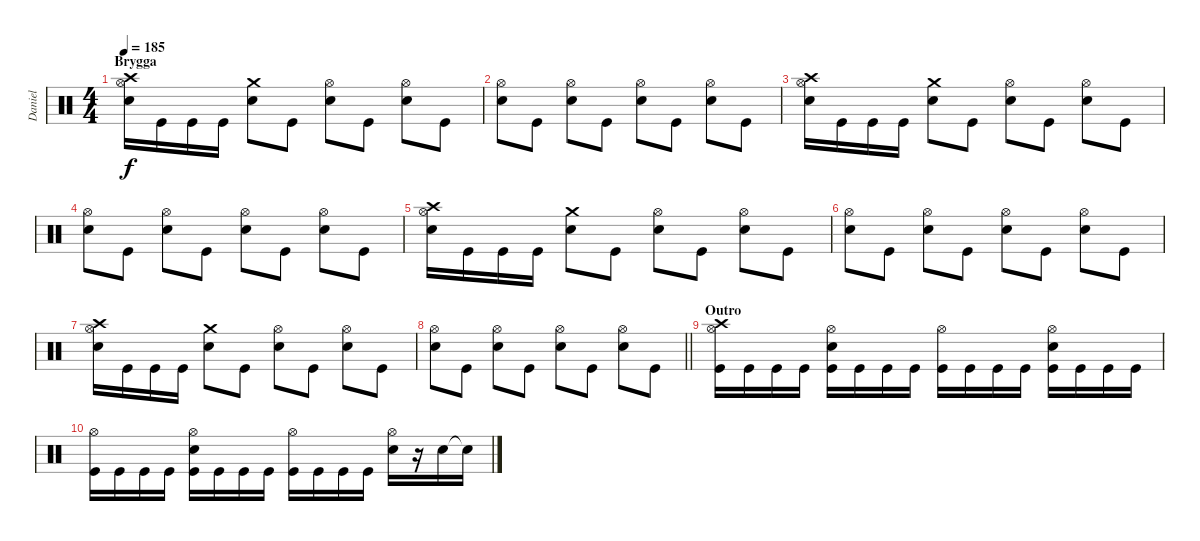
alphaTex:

\track ("Daniel" "Daniel") {instrument percussion}
\staff {score}
\articulation defaults
\ts (4 4)
\section ("" "Brygga")
\tempo 185
\clef neutral
\ks c
("Crash high (hit)" "Hi-Hat (open)" "Electric Snare (hit)").16{dy f} "Kick (hit)".16 "Kick (hit)".16 "Kick (hit)".16 ("Crash medium (hit)" "Electric Snare (hit)").8 "Kick (hit)".8 ("Hi-Hat (open)" "Electric Snare (hit)").8 "Kick (hit)".8 ("Hi-Hat (open)" "Electric Snare (hit)").8 "Kick (hit)".8 |
("Hi-Hat (open)" "Electric Snare (hit)").8 "Kick (hit)".8 ("Hi-Hat (open)" "Electric Snare (hit)").8 "Kick (hit)".8 ("Hi-Hat (open)" "Electric Snare (hit)").8 "Kick (hit)".8 ("Hi-Hat (open)" "Electric Snare (hit)").8 "Kick (hit)".8 |
("Crash high (hit)" "Hi-Hat (open)" "Electric Snare (hit)").16 "Kick (hit)".16 "Kick (hit)".16 "Kick (hit)".16 ("Crash medium (hit)" "Electric Snare (hit)").8 "Kick (hit)".8 ("Hi-Hat (open)" "Electric Snare (hit)").8 "Kick (hit)".8 ("Hi-Hat (open)" "Electric Snare (hit)").8 "Kick (hit)".8 |
("Hi-Hat (open)" "Electric Snare (hit)").8 "Kick (hit)".8 ("Hi-Hat (open)" "Electric Snare (hit)").8 "Kick (hit)".8 ("Hi-Hat (open)" "Electric Snare (hit)").8 "Kick (hit)".8 ("Hi-Hat (open)" "Electric Snare (hit)").8 "Kick (hit)".8 |
("Crash high (hit)" "Hi-Hat (open)" "Electric Snare (hit)").16 "Kick (hit)".16 "Kick (hit)".16 "Kick (hit)".16 ("Crash medium (hit)" "Electric Snare (hit)").8 "Kick (hit)".8 ("Hi-Hat (open)" "Electric Snare (hit)").8 "Kick (hit)".8 ("Hi-Hat (open)" "Electric Snare (hit)").8 "Kick (hit)".8 |
("Hi-Hat (open)" "Electric Snare (hit)").8 "Kick (hit)".8 ("Hi-Hat (open)" "Electric Snare (hit)").8 "Kick (hit)".8 ("Hi-Hat (open)" "Electric Snare (hit)").8 "Kick (hit)".8 ("Hi-Hat (open)" "Electric Snare (hit)").8 "Kick (hit)".8 |
("Crash high (hit)" "Hi-Hat (open)" "Electric Snare (hit)").16 "Kick (hit)".16 "Kick (hit)".16 "Kick (hit)".16 ("Crash medium (hit)" "Electric Snare (hit)").8 "Kick (hit)".8 ("Hi-Hat (open)" "Electric Snare (hit)").8 "Kick (hit)".8 ("Hi-Hat (open)" "Electric Snare (hit)").8 "Kick (hit)".8 |
\barLineRight lightlight
("Hi-Hat (open)" "Electric Snare (hit)").8 "Kick (hit)".8 ("Hi-Hat (open)" "Electric Snare (hit)").8 "Kick (hit)".8 ("Hi-Hat (open)" "Electric Snare (hit)").8 "Kick (hit)".8 ("Hi-Hat (open)" "Electric Snare (hit)").8 "Kick (hit)".8 |
\section ("" "Outro")
("Crash high (hit)" "Hi-Hat (open)" "Kick (hit)").16 "Kick (hit)".16 "Kick (hit)".16 "Kick (hit)".16 ("Hi-Hat (open)" "Electric Snare (hit)" "Kick (hit)").16 "Kick (hit)".16 "Kick (hit)".16 "Kick (hit)".16 ("Hi-Hat (open)" "Kick (hit)").16 "Kick (hit)".16 "Kick (hit)".16 "Kick (hit)".16 ("Hi-Hat (open)" "Electric Snare (hit)" "Kick (hit)").16 "Kick (hit)".16 "Kick (hit)".16 "Kick (hit)".16 |
("Hi-Hat (open)" "Kick (hit)").16 "Kick (hit)".16 "Kick (hit)".16 "Kick (hit)".16 ("Hi-Hat (open)" "Electric Snare (hit)" "Kick (hit)").16 "Kick (hit)".16 "Kick (hit)".16 "Kick (hit)".16 ("Hi-Hat (open)" "Kick (hit)").16 "Kick (hit)".16 "Kick (hit)".16 "Kick (hit)".16 ("Hi-Hat (open)" "Electric Snare (hit)").16 r.16 "Electric Snare (hit)".16 "Snare (hit)"{t}.16
